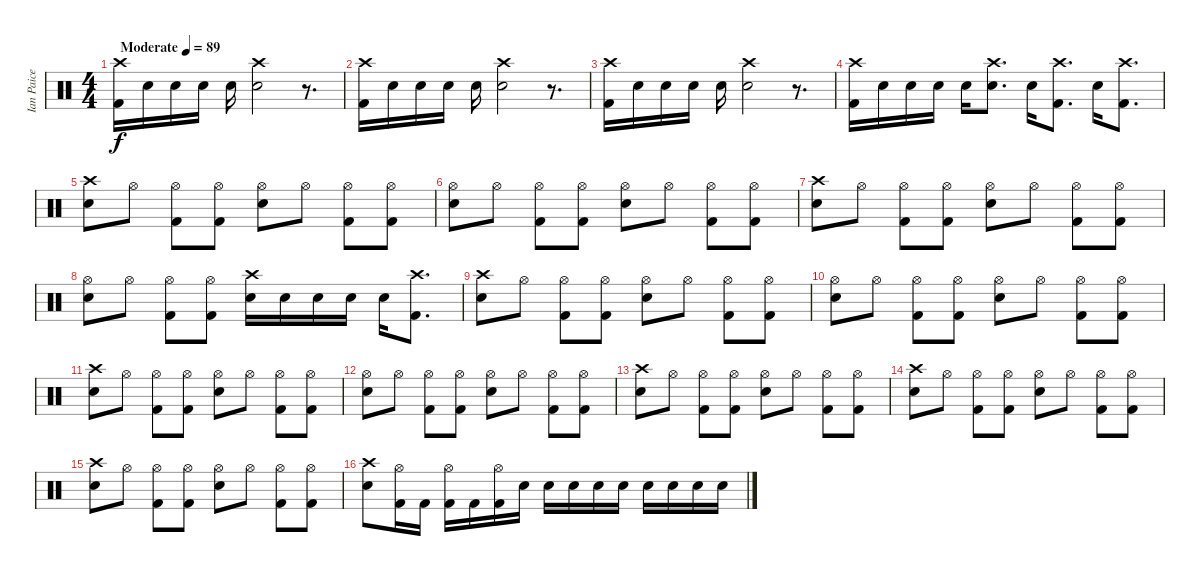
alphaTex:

\track ("Ian Paice" "Ian Paice") {instrument percussion}
\staff {score}
\articulation defaults
\ts (4 4)
\tempo (89 "Moderate")
\clef neutral
\ks c
("Crash high (hit)" "Kick (hit) 2").16{dy f} "Electric Snare (hit)".16 "Electric Snare (hit)".16 "Electric Snare (hit)".16 "Electric Snare (hit)".16 ("Crash high (hit)" "Electric Snare (hit)").2 r.8{d} |
("Crash high (hit)" "Kick (hit) 2").16 "Electric Snare (hit)".16 "Electric Snare (hit)".16 "Electric Snare (hit)".16 "Electric Snare (hit)".16 ("Crash high (hit)" "Electric Snare (hit)").2 r.8{d} |
("Crash high (hit)" "Kick (hit) 2").16 "Electric Snare (hit)".16 "Electric Snare (hit)".16 "Electric Snare (hit)".16 "Electric Snare (hit)".16 ("Crash high (hit)" "Electric Snare (hit)").2 r.8{d} |
("Crash high (hit)" "Kick (hit) 2").16 "Electric Snare (hit)".16 "Electric Snare (hit)".16 "Electric Snare (hit)".16 "Electric Snare (hit)".16 ("Crash high (hit)" "Electric Snare (hit)").8{d} "Electric Snare (hit)".16 ("Crash high (hit)" "Kick (hit) 2").8{d} "Electric Snare (hit)".16 ("Crash high (hit)" "Kick (hit) 2").8{d} |
("Crash high (hit)" "Electric Snare (hit)").8 "Hi-Hat (open)".8 ("Hi-Hat (open)" "Kick (hit) 2").8 ("Hi-Hat (open)" "Kick (hit) 2").8 ("Hi-Hat (open)" "Electric Snare (hit)").8 "Hi-Hat (open)".8 ("Hi-Hat (open)" "Kick (hit) 2").8 ("Hi-Hat (open)" "Kick (hit) 2").8 |
("Hi-Hat (open)" "Electric Snare (hit)").8 "Hi-Hat (open)".8 ("Hi-Hat (open)" "Kick (hit) 2").8 ("Hi-Hat (open)" "Kick (hit) 2").8 ("Hi-Hat (open)" "Electric Snare (hit)").8 "Hi-Hat (open)".8 ("Hi-Hat (open)" "Kick (hit) 2").8 ("Hi-Hat (open)" "Kick (hit) 2").8 |
("Crash high (hit)" "Electric Snare (hit)").8 "Hi-Hat (open)".8 ("Hi-Hat (open)" "Kick (hit) 2").8 ("Hi-Hat (open)" "Kick (hit) 2").8 ("Hi-Hat (open)" "Electric Snare (hit)").8 "Hi-Hat (open)".8 ("Hi-Hat (open)" "Kick (hit) 2").8 ("Hi-Hat (open)" "Kick (hit) 2").8 |
("Hi-Hat (open)" "Electric Snare (hit)").8 "Hi-Hat (open)".8 ("Hi-Hat (open)" "Kick (hit) 2").8 ("Hi-Hat (open)" "Kick (hit) 2").8 ("Crash high (hit)" "Electric Snare (hit)").16 "Electric Snare (hit)".16 "Electric Snare (hit)".16 "Electric Snare (hit)".16 "Electric Snare (hit)".16 ("Crash high (hit)" "Kick (hit) 2").8{d} |
("Crash high (hit)" "Electric Snare (hit)").8 "Hi-Hat (open)".8 ("Hi-Hat (open)" "Kick (hit) 2").8 ("Hi-Hat (open)" "Kick (hit) 2").8 ("Hi-Hat (open)" "Electric Snare (hit)").8 "Hi-Hat (open)".8 ("Hi-Hat (open)" "Kick (hit) 2").8 ("Hi-Hat (open)" "Kick (hit) 2").8 |
("Hi-Hat (open)" "Electric Snare (hit)").8 "Hi-Hat (open)".8 ("Hi-Hat (open)" "Kick (hit) 2").8 ("Hi-Hat (open)" "Kick (hit) 2").8 ("Hi-Hat (open)" "Electric Snare (hit)").8 "Hi-Hat (open)".8 ("Hi-Hat (open)" "Kick (hit) 2").8 ("Hi-Hat (open)" "Kick (hit) 2").8 |
("Crash high (hit)" "Electric Snare (hit)").8 "Hi-Hat (open)".8 ("Hi-Hat (open)" "Kick (hit) 2").8 ("Hi-Hat (open)" "Kick (hit) 2").8 ("Hi-Hat (open)" "Electric Snare (hit)").8 "Hi-Hat (open)".8 ("Hi-Hat (open)" "Kick (hit) 2").8 ("Hi-Hat (open)" "Kick (hit) 2").8 |
("Hi-Hat (open)" "Electric Snare (hit)").8 "Hi-Hat (open)".8 ("Hi-Hat (open)" "Kick (hit) 2").8 ("Hi-Hat (open)" "Kick (hit) 2").8 ("Hi-Hat (open)" "Electric Snare (hit)").8 "Hi-Hat (open)".8 ("Hi-Hat (open)" "Kick (hit) 2").8 ("Hi-Hat (open)" "Kick (hit) 2").8 |
("Crash high (hit)" "Electric Snare (hit)").8 "Hi-Hat (open)".8 ("Hi-Hat (open)" "Kick (hit) 2").8 ("Hi-Hat (open)" "Kick (hit) 2").8 ("Hi-Hat (open)" "Electric Snare (hit)").8 "Hi-Hat (open)".8 ("Hi-Hat (open)" "Kick (hit) 2").8 ("Hi-Hat (open)" "Kick (hit) 2").8 |
("Crash high (hit)" "Electric Snare (hit)").8 "Hi-Hat (open)".8 ("Hi-Hat (open)" "Kick (hit) 2").8 ("Hi-Hat (open)" "Kick (hit) 2").8 ("Hi-Hat (open)" "Electric Snare (hit)").8 "Hi-Hat (open)".8 ("Hi-Hat (open)" "Kick (hit) 2").8 ("Hi-Hat (open)" "Kick (hit) 2").8 |
("Crash high (hit)" "Electric Snare (hit)").8 "Hi-Hat (open)".8 ("Hi-Hat (open)" "Kick (hit) 2").8 ("Hi-Hat (open)" "Kick (hit) 2").8 ("Hi-Hat (open)" "Electric Snare (hit)").8 "Hi-Hat (open)".8 ("Hi-Hat (open)" "Kick (hit) 2").8 ("Hi-Hat (open)" "Kick (hit) 2").8 |
("Crash high (hit)" "Electric Snare (hit)").8 ("Hi-Hat (open)" "Kick (hit) 2").16 "Kick (hit) 2".16 ("Hi-Hat (open)" "Kick (hit) 2").16 "Kick (hit) 2".16 ("Hi-Hat (open)" "Kick (hit) 2").16 "Electric Snare (hit)".16 "Electric Snare (hit)".16 "Electric Snare (hit)".16 "Electric Snare (hit)".16 "Electric Snare (hit)".16 "Electric Snare (hit)".16 "Electric Snare (hit)".16 "Electric Snare (hit)".16 "Electric Snare (hit)".16
